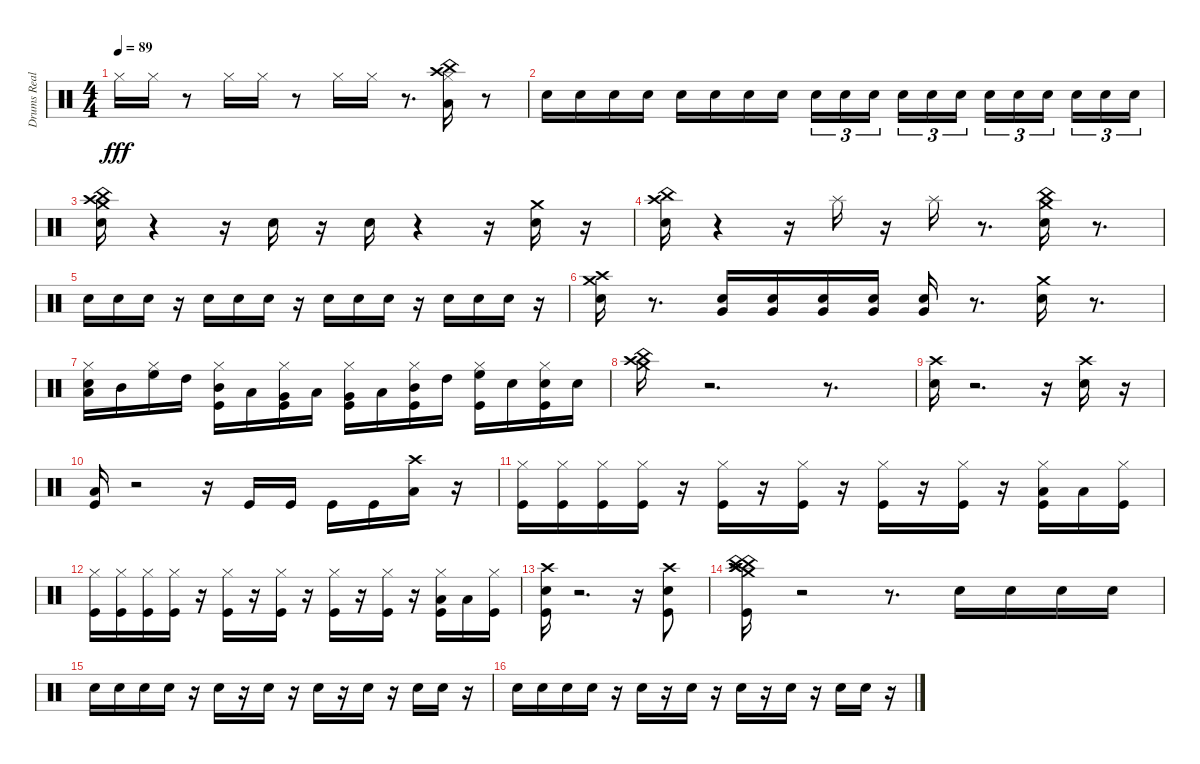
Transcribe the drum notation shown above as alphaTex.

\track ("Drums Real" "Drums Real") {instrument percussion}
\staff {score}
\articulation defaults
\ts (4 4)
\tempo 89
\clef neutral
\ks c "Hi-Hat (closed)".16{dy fff} "Hi-Hat (closed)".16
r.8 "Hi-Hat (closed)".16 "Hi-Hat (closed)".16 r.8 "Hi-Hat (closed)".16 "Hi-Hat (closed)".16 r.8{d} ("Hi-Hat (closed)" "Low Tom (hit)" "Crash high (hit)" "China (hit)").16 r.8 |
"Electric Snare (hit)".16 "Electric Snare (hit)".16 "Electric Snare (hit)".16 "Electric Snare (hit)".16 "Electric Snare (hit)".16 "Electric Snare (hit)".16 "Electric Snare (hit)".16 "Electric Snare (hit)".16 "Electric Snare (hit)".16{tu (3 2)} "Electric Snare (hit)".16{tu (3 2)} "Electric Snare (hit)".16{tu (3 2)} "Electric Snare (hit)".16{tu (3 2)} "Electric Snare (hit)".16{tu (3 2)} "Electric Snare (hit)".16{tu (3 2)} "Electric Snare (hit)".16{tu (3 2)} "Electric Snare (hit)".16{tu (3 2)} "Electric Snare (hit)".16{tu (3 2)} "Electric Snare (hit)".16{tu (3 2)} "Electric Snare (hit)".16{tu (3 2)} "Electric Snare (hit)".16{tu (3 2)} |
("Electric Snare (hit)" "Crash high (hit)" "China (hit)" "Crash medium (hit)").16 r.4 r.16 "Electric Snare (hit)".16 r.16 "Electric Snare (hit)".16 r.4 r.16 ("Crash medium (hit)" "Electric Snare (hit)").16 r.16 |
("Electric Snare (hit)" "Crash high (hit)" "China (hit)").16 r.4 r.16 "Splash (hit)".16 r.16 "Splash (hit)".16 r.8{d} ("Crash medium (hit)" "China (hit)" "Electric Snare (hit)").16 r.8{d} |
"Electric Snare (hit)".16 "Electric Snare (hit)".16 "Electric Snare (hit)".16 r.16 "Electric Snare (hit)".16 "Electric Snare (hit)".16 "Electric Snare (hit)".16 r.16 "Electric Snare (hit)".16 "Electric Snare (hit)".16 "Electric Snare (hit)".16 r.16 "Electric Snare (hit)".16 "Electric Snare (hit)".16 "Electric Snare (hit)".16 r.16 |
("Snare (hit) 2" "Crash medium (hit)" "Crash high (hit)").16 r.8{d} ("Very Low Tom (hit)" "Snare (hit) 2").16 ("Very Low Tom (hit)" "Snare (hit) 2").16 ("Very Low Tom (hit)" "Snare (hit) 2").16 ("Very Low Tom (hit)" "Snare (hit) 2").16 ("Very Low Tom (hit)" "Snare (hit) 2").16 r.8{d} ("Crash medium (hit)" "Snare (hit) 2").16 r.8{d} |
("Hi-Hat (closed)" "Electric Snare (hit)" "Low Tom (hit)").16 "Mid Tom (hit)".16 ("Hi-Hat (closed)" "High Floor Tom (hit)").16 "High Tom (hit)".16 ("Mid Tom (hit)" "Kick (hit)" "Hi-Hat (closed)").16 "Low Tom (hit)".16 ("Very Low Tom (hit)" "Kick (hit)" "Hi-Hat (closed)").16 "Low Floor Tom (hit)".16 ("Very Low Tom (hit)" "Kick (hit)" "Hi-Hat (closed)").16 "Low Tom (hit)".16 ("Mid Tom (hit)" "Kick (hit)" "Hi-Hat (closed)").16 "High Tom (hit)".16 ("High Floor Tom (hit)" "Kick (hit)" "Hi-Hat (closed)").16 "Electric Snare (hit)".16 ("Snare (hit) 2" "Kick (hit)" "Hi-Hat (closed)").16 "Electric Snare (hit)".16 |
("Crash high (hit)" "China (hit)" "Crash medium (hit)").16 r.2{d} r.8{d} |
("Electric Snare (hit)" "Crash high (hit)").16 r.2{d} r.16 ("Crash high (hit)" "Electric Snare (hit)").16 r.16 |
("Kick (hit)" "Low Tom (hit)").16 r.2 r.16 "Kick (hit)".16 "Kick (hit)".16 "Kick (hit)".16 "Kick (hit)".16 ("Low Tom (hit)" "Crash high (hit)").16 r.16 |
("Hi-Hat (closed)" "Kick (hit)").16 ("Hi-Hat (closed)" "Kick (hit)").16 ("Hi-Hat (closed)" "Kick (hit)").16 ("Hi-Hat (closed)" "Kick (hit)").16 r.16 ("Kick (hit)" "Hi-Hat (closed)").16 r.16 ("Kick (hit)" "Hi-Hat (closed)").16 r.16 ("Kick (hit)" "Hi-Hat (closed)").16 r.16 ("Kick (hit)" "Hi-Hat (closed)").16 r.16 ("Hi-Hat (closed)" "Kick (hit)" "Low Tom (hit)").16 "Low Tom (hit)".16 ("Kick (hit)" "Hi-Hat (closed)").16 |
("Kick (hit)" "Hi-Hat (closed)").16 ("Kick (hit)" "Hi-Hat (closed)").16 ("Kick (hit)" "Hi-Hat (closed)").16 ("Kick (hit)" "Hi-Hat (closed)").16 r.16 ("Kick (hit)" "Hi-Hat (closed)").16 r.16 ("Kick (hit)" "Hi-Hat (closed)").16 r.16 ("Kick (hit)" "Hi-Hat (closed)").16 r.16 ("Kick (hit)" "Hi-Hat (closed)").16 r.16 ("Kick (hit)" "Hi-Hat (closed)" "Low Tom (hit)").16 "Low Tom (hit)".16 ("Kick (hit)" "Hi-Hat (closed)").16 |
("Electric Snare (hit)" "Kick (hit)" "Crash high (hit)").16 r.2{d} r.16 ("Kick (hit)" "Electric Snare (hit)" "Crash high (hit)").8 |
("Crash high (hit)" "Crash high (hit)" "China (hit)" "China (hit)" "Crash medium (hit)" "Kick (hit)").16 r.2 r.8{d} "Electric Snare (hit)".16 "Electric Snare (hit)".16 "Electric Snare (hit)".16 "Electric Snare (hit)".16 |
"Electric Snare (hit)".16 "Electric Snare (hit)".16 "Electric Snare (hit)".16 "Electric Snare (hit)".16 r.16 "Electric Snare (hit)".16 r.16 "Electric Snare (hit)".16 r.16 "Electric Snare (hit)".16 r.16 "Electric Snare (hit)".16 r.16 "Electric Snare (hit)".16 "Electric Snare (hit)".16 r.16 |
"Electric Snare (hit)".16 "Electric Snare (hit)".16 "Electric Snare (hit)".16 "Electric Snare (hit)".16 r.16 "Electric Snare (hit)".16 r.16 "Electric Snare (hit)".16 r.16 "Electric Snare (hit)".16 r.16 "Electric Snare (hit)".16 r.16 "Electric Snare (hit)".16 "Electric Snare (hit)".16 r.16
